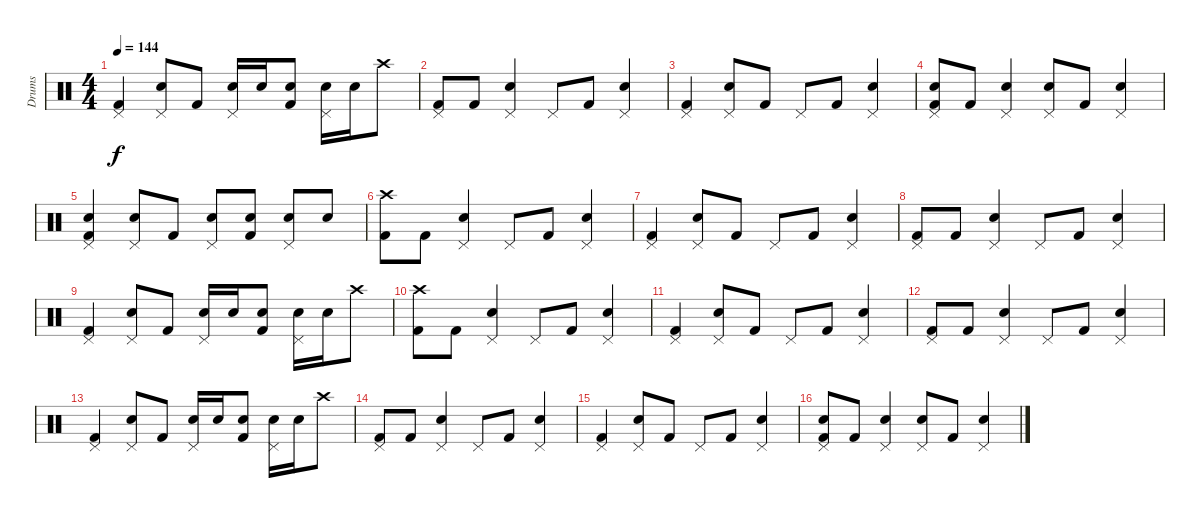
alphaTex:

\track ("Drums" "Drums") {instrument percussion}
\staff {score}
\articulation defaults
\ts (4 4)
\tempo 144
\clef neutral
\ks c
("Kick (hit) 2" "Pedal Hi-Hat (hit)").4{dy f} ("Electric Snare (hit)" "Pedal Hi-Hat (hit)").8 "Kick (hit) 2".8 ("Electric Snare (hit)" "Pedal Hi-Hat (hit)").16 "Electric Snare (hit)".16 ("Electric Snare (hit)" "Kick (hit) 2").8 ("Electric Snare (hit)" "Pedal Hi-Hat (hit)").16 "Electric Snare (hit)".16 "Crash high (hit)".8 |
("Pedal Hi-Hat (hit)" "Kick (hit) 2").8 "Kick (hit) 2".8 ("Pedal Hi-Hat (hit)" "Electric Snare (hit)").4 "Pedal Hi-Hat (hit)".8 "Kick (hit) 2".8 ("Pedal Hi-Hat (hit)" "Electric Snare (hit)").4 |
("Kick (hit) 2" "Pedal Hi-Hat (hit)").4 ("Electric Snare (hit)" "Pedal Hi-Hat (hit)").8 "Kick (hit) 2".8 "Pedal Hi-Hat (hit)".8 "Kick (hit) 2".8 ("Electric Snare (hit)" "Pedal Hi-Hat (hit)").4 |
("Electric Snare (hit)" "Pedal Hi-Hat (hit)" "Kick (hit) 2").8 "Kick (hit) 2".8 ("Pedal Hi-Hat (hit)" "Electric Snare (hit)").4 ("Electric Snare (hit)" "Pedal Hi-Hat (hit)").8 "Kick (hit) 2".8 ("Pedal Hi-Hat (hit)" "Electric Snare (hit)").4 |
("Electric Snare (hit)" "Kick (hit) 2" "Pedal Hi-Hat (hit)").4 ("Electric Snare (hit)" "Pedal Hi-Hat (hit)").8 "Kick (hit) 2".8 ("Electric Snare (hit)" "Pedal Hi-Hat (hit)").8 ("Electric Snare (hit)" "Kick (hit) 2").8 ("Electric Snare (hit)" "Pedal Hi-Hat (hit)").8 "Electric Snare (hit)".8 |
("Crash high (hit)" "Kick (hit) 2").8 "Kick (hit) 2".8 ("Pedal Hi-Hat (hit)" "Electric Snare (hit)").4 "Pedal Hi-Hat (hit)".8 "Kick (hit) 2".8 ("Pedal Hi-Hat (hit)" "Electric Snare (hit)").4 |
("Kick (hit) 2" "Pedal Hi-Hat (hit)").4 ("Electric Snare (hit)" "Pedal Hi-Hat (hit)").8 "Kick (hit) 2".8 "Pedal Hi-Hat (hit)".8 "Kick (hit) 2".8 ("Electric Snare (hit)" "Pedal Hi-Hat (hit)").4 |
("Pedal Hi-Hat (hit)" "Kick (hit) 2").8 "Kick (hit) 2".8 ("Pedal Hi-Hat (hit)" "Electric Snare (hit)").4 "Pedal Hi-Hat (hit)".8 "Kick (hit) 2".8 ("Pedal Hi-Hat (hit)" "Electric Snare (hit)").4 |
("Kick (hit) 2" "Pedal Hi-Hat (hit)").4 ("Electric Snare (hit)" "Pedal Hi-Hat (hit)").8 "Kick (hit) 2".8 ("Electric Snare (hit)" "Pedal Hi-Hat (hit)").16 "Electric Snare (hit)".16 ("Electric Snare (hit)" "Kick (hit) 2").8 ("Electric Snare (hit)" "Pedal Hi-Hat (hit)").16 "Electric Snare (hit)".16 "Crash high (hit)".8 |
("Crash high (hit)" "Kick (hit) 2").8 "Kick (hit) 2".8 ("Pedal Hi-Hat (hit)" "Electric Snare (hit)").4 "Pedal Hi-Hat (hit)".8 "Kick (hit) 2".8 ("Pedal Hi-Hat (hit)" "Electric Snare (hit)").4 |
("Kick (hit) 2" "Pedal Hi-Hat (hit)").4 ("Electric Snare (hit)" "Pedal Hi-Hat (hit)").8 "Kick (hit) 2".8 "Pedal Hi-Hat (hit)".8 "Kick (hit) 2".8 ("Electric Snare (hit)" "Pedal Hi-Hat (hit)").4 |
("Pedal Hi-Hat (hit)" "Kick (hit) 2").8 "Kick (hit) 2".8 ("Pedal Hi-Hat (hit)" "Electric Snare (hit)").4 "Pedal Hi-Hat (hit)".8 "Kick (hit) 2".8 ("Pedal Hi-Hat (hit)" "Electric Snare (hit)").4 |
("Kick (hit) 2" "Pedal Hi-Hat (hit)").4 ("Electric Snare (hit)" "Pedal Hi-Hat (hit)").8 "Kick (hit) 2".8 ("Electric Snare (hit)" "Pedal Hi-Hat (hit)").16 "Electric Snare (hit)".16 ("Electric Snare (hit)" "Kick (hit) 2").8 ("Electric Snare (hit)" "Pedal Hi-Hat (hit)").16 "Electric Snare (hit)".16 "Crash high (hit)".8 |
("Pedal Hi-Hat (hit)" "Kick (hit) 2").8 "Kick (hit) 2".8 ("Pedal Hi-Hat (hit)" "Electric Snare (hit)").4 "Pedal Hi-Hat (hit)".8 "Kick (hit) 2".8 ("Pedal Hi-Hat (hit)" "Electric Snare (hit)").4 |
("Kick (hit) 2" "Pedal Hi-Hat (hit)").4 ("Electric Snare (hit)" "Pedal Hi-Hat (hit)").8 "Kick (hit) 2".8 "Pedal Hi-Hat (hit)".8 "Kick (hit) 2".8 ("Electric Snare (hit)" "Pedal Hi-Hat (hit)").4 |
("Electric Snare (hit)" "Pedal Hi-Hat (hit)" "Kick (hit) 2").8 "Kick (hit) 2".8 ("Pedal Hi-Hat (hit)" "Electric Snare (hit)").4 ("Electric Snare (hit)" "Pedal Hi-Hat (hit)").8 "Kick (hit) 2".8 ("Pedal Hi-Hat (hit)" "Electric Snare (hit)").4
